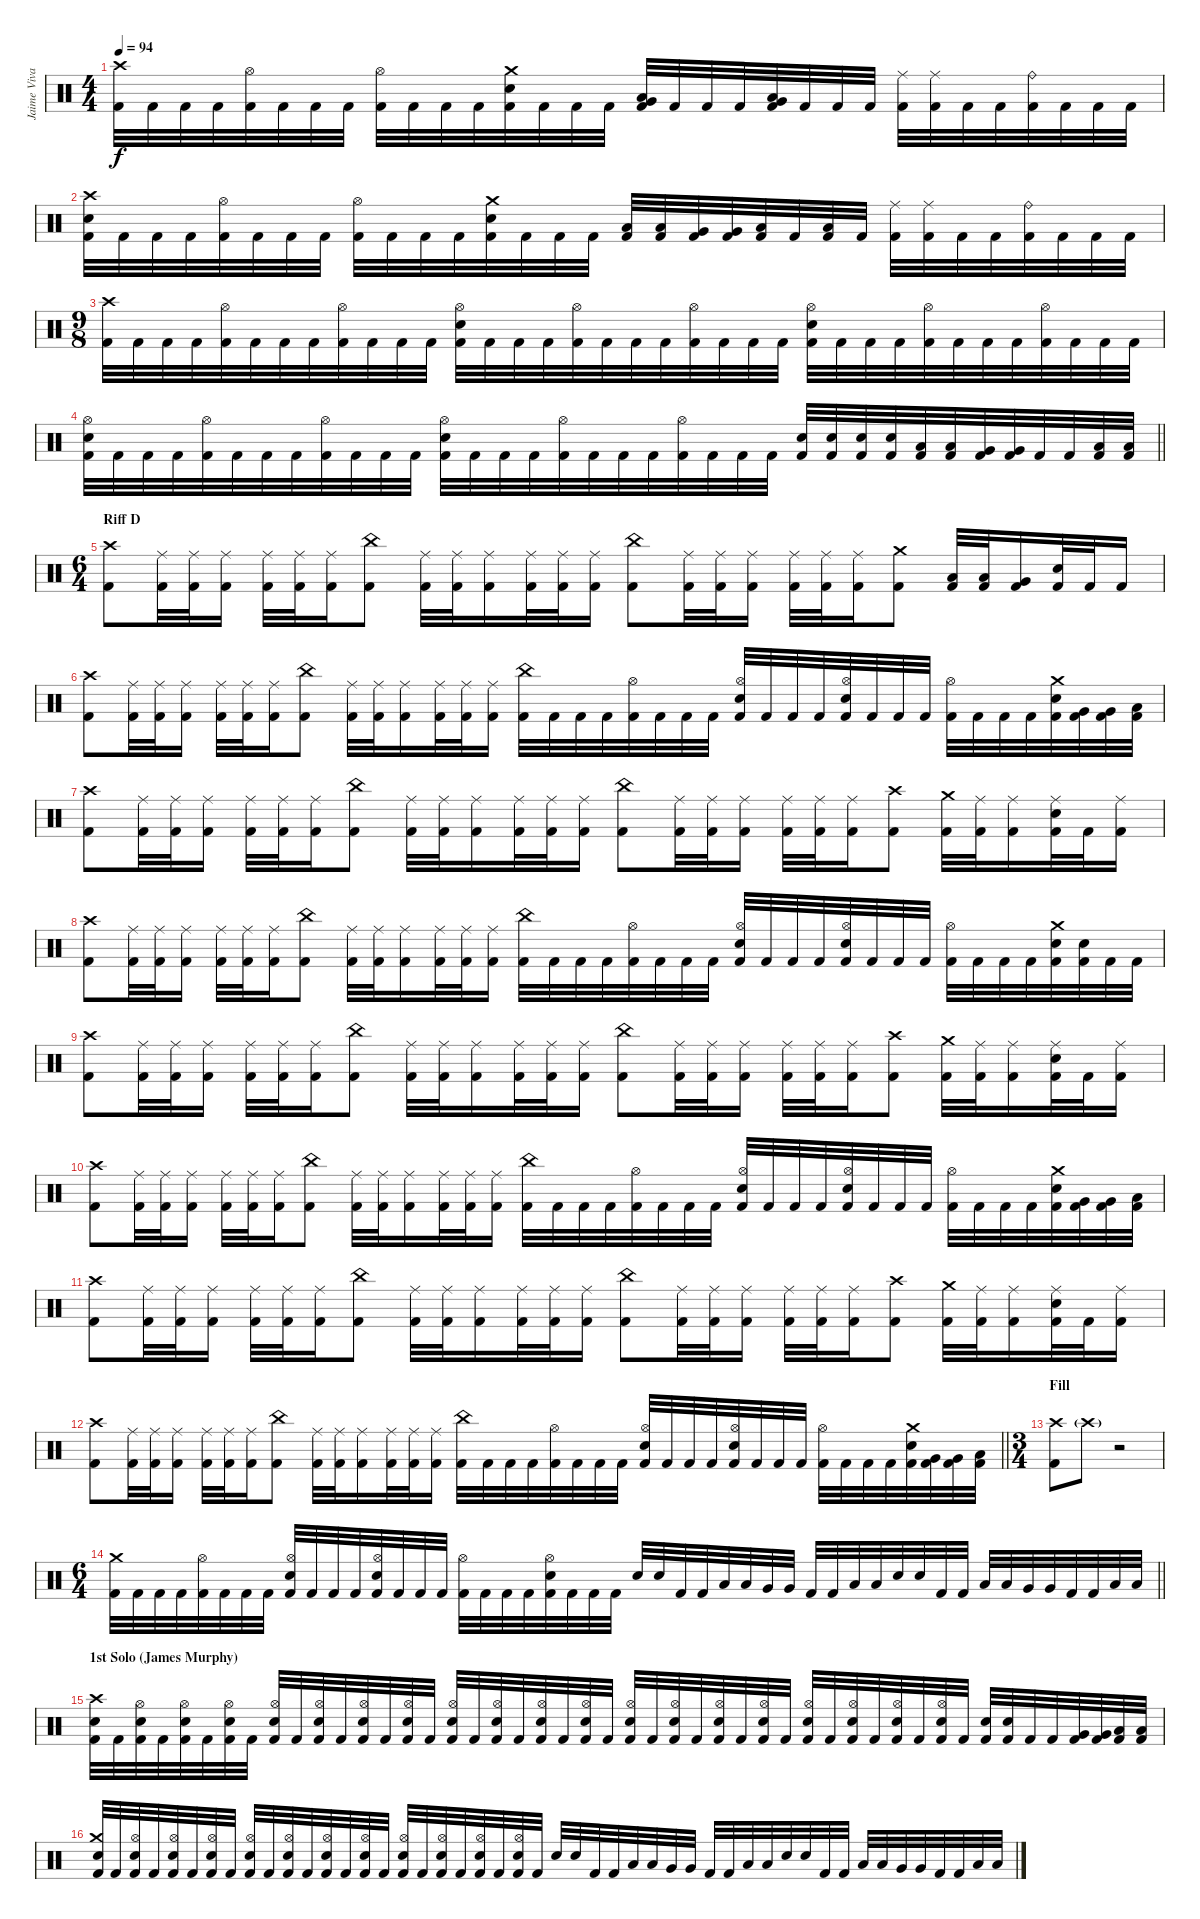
\track ("Jaime Vivar" "Jaime Viva") {instrument percussion}
\staff {score}
\articulation defaults
\ts (4 4)
\tempo 94
\clef neutral
\ks c
("Crash high (hit)" "Kick (hit) 2").32{dy f} "Kick (hit) 2".32 "Kick (hit) 2".32 "Kick (hit) 2".32 ("Hi-Hat (open)" "Kick (hit) 2").32 "Kick (hit) 2".32 "Kick (hit) 2".32 "Kick (hit) 2".32 ("Hi-Hat (open)" "Kick (hit) 2").32 "Kick (hit) 2".32 "Kick (hit) 2".32 "Kick (hit) 2".32 ("Crash medium (hit)" "Snare (hit) 2" "Kick (hit) 2").32 "Kick (hit) 2".32 "Kick (hit) 2".32 "Kick (hit) 2".32 ("Low Tom (hit)" "Very Low Tom (hit)" "Kick (hit) 2").32 "Kick (hit) 2".32 "Kick (hit) 2".32 "Kick (hit) 2".32 ("Very Low Tom (hit)" "Low Floor Tom (hit)" "Kick (hit) 2").32 "Kick (hit) 2".32 "Kick (hit) 2".32 "Kick (hit) 2".32 ("Ride (middle)" "Kick (hit) 2").32 ("Ride (middle)" "Kick (hit) 2").32 "Kick (hit) 2".32 "Kick (hit) 2".32 ("Ride (bell)" "Kick (hit) 2").32 "Kick (hit) 2".32 "Kick (hit) 2".32 "Kick (hit) 2".32 |
("Crash high (hit)" "Snare (hit) 2" "Kick (hit) 2").32 "Kick (hit) 2".32 "Kick (hit) 2".32 "Kick (hit) 2".32 ("Hi-Hat (open)" "Kick (hit) 2").32 "Kick (hit) 2".32 "Kick (hit) 2".32 "Kick (hit) 2".32 ("Hi-Hat (open)" "Kick (hit) 2").32 "Kick (hit) 2".32 "Kick (hit) 2".32 "Kick (hit) 2".32 ("Crash medium (hit)" "Snare (hit) 2" "Kick (hit) 2").32 "Kick (hit) 2".32 "Kick (hit) 2".32 "Kick (hit) 2".32 ("Low Tom (hit)" "Kick (hit) 2").32 ("Low Tom (hit)" "Kick (hit) 2").32 ("Very Low Tom (hit)" "Kick (hit) 2").32 ("Very Low Tom (hit)" "Kick (hit) 2").32 ("Low Floor Tom (hit)" "Kick (hit) 2").32 "Kick (hit) 2".32 ("Low Floor Tom (hit)" "Kick (hit) 2").32 "Kick (hit) 2".32 ("Ride (middle)" "Kick (hit) 2").32 ("Ride (middle)" "Kick (hit) 2").32 "Kick (hit) 2".32 "Kick (hit) 2".32 ("Ride (bell)" "Kick (hit) 2").32 "Kick (hit) 2".32 "Kick (hit) 2".32 "Kick (hit) 2".32 |
\ts (9 8)
("Crash high (hit)" "Kick (hit) 2").32 "Kick (hit) 2".32 "Kick (hit) 2".32 "Kick (hit) 2".32 ("Hi-Hat (open)" "Kick (hit) 2").32 "Kick (hit) 2".32 "Kick (hit) 2".32 "Kick (hit) 2".32 ("Hi-Hat (open)" "Kick (hit) 2").32 "Kick (hit) 2".32 "Kick (hit) 2".32 "Kick (hit) 2".32 ("Hi-Hat (open)" "Snare (hit) 2" "Kick (hit) 2").32 "Kick (hit) 2".32 "Kick (hit) 2".32 "Kick (hit) 2".32 ("Hi-Hat (open)" "Kick (hit) 2").32 "Kick (hit) 2".32 "Kick (hit) 2".32 "Kick (hit) 2".32 ("Hi-Hat (open)" "Kick (hit) 2").32 "Kick (hit) 2".32 "Kick (hit) 2".32 "Kick (hit) 2".32 ("Hi-Hat (open)" "Snare (hit) 2" "Kick (hit) 2").32 "Kick (hit) 2".32 "Kick (hit) 2".32 "Kick (hit) 2".32 ("Hi-Hat (open)" "Kick (hit) 2").32 "Kick (hit) 2".32 "Kick (hit) 2".32 "Kick (hit) 2".32 ("Hi-Hat (open)" "Kick (hit) 2").32 "Kick (hit) 2".32 "Kick (hit) 2".32 "Kick (hit) 2".32 |
\barLineRight lightlight
("Hi-Hat (open)" "Snare (hit) 2" "Kick (hit) 2").32 "Kick (hit) 2".32 "Kick (hit) 2".32 "Kick (hit) 2".32 ("Hi-Hat (open)" "Kick (hit) 2").32 "Kick (hit) 2".32 "Kick (hit) 2".32 "Kick (hit) 2".32 ("Hi-Hat (open)" "Kick (hit) 2").32 "Kick (hit) 2".32 "Kick (hit) 2".32 "Kick (hit) 2".32 ("Hi-Hat (open)" "Snare (hit) 2" "Kick (hit) 2").32 "Kick (hit) 2".32 "Kick (hit) 2".32 "Kick (hit) 2".32 ("Hi-Hat (open)" "Kick (hit) 2").32 "Kick (hit) 2".32 "Kick (hit) 2".32 "Kick (hit) 2".32 ("Hi-Hat (open)" "Kick (hit) 2").32 "Kick (hit) 2".32 "Kick (hit) 2".32 "Kick (hit) 2".32 ("Snare (hit) 2" "Kick (hit) 2").32 ("Snare (hit) 2" "Kick (hit) 2").32 ("Snare (hit) 2" "Kick (hit) 2").32 ("Snare (hit) 2" "Kick (hit) 2").32 ("Low Tom (hit)" "Kick (hit) 2").32 ("Low Tom (hit)" "Kick (hit) 2").32 ("Very Low Tom (hit)" "Kick (hit) 2").32 ("Very Low Tom (hit)" "Kick (hit) 2").32 "Kick (hit) 2".32 "Kick (hit) 2".32 ("Low Floor Tom (hit)" "Kick (hit) 2").32 ("Low Floor Tom (hit)" "Kick (hit) 2").32 |
\ts (6 4)
\section ("" "Riff D")
("Crash high (hit)" "Kick (hit) 2").8 ("Ride (middle)" "Kick (hit) 2").32 ("Ride (middle)" "Kick (hit) 2").32 ("Ride (middle)" "Kick (hit) 2").16 ("Ride (middle)" "Kick (hit) 2").32 ("Ride (middle)" "Kick (hit) 2").32 ("Ride (middle)" "Kick (hit) 2").16 ("China (hit)" "Kick (hit) 2").8 ("Ride (middle)" "Kick (hit) 2").32 ("Ride (middle)" "Kick (hit) 2").32 ("Ride (middle)" "Kick (hit) 2").16 ("Ride (middle)" "Kick (hit) 2").32 ("Ride (middle)" "Kick (hit) 2").32 ("Ride (middle)" "Kick (hit) 2").16 ("China (hit)" "Kick (hit) 2").8 ("Ride (middle)" "Kick (hit) 2").32 ("Ride (middle)" "Kick (hit) 2").32 ("Ride (middle)" "Kick (hit) 2").16 ("Ride (middle)" "Kick (hit) 2").32 ("Ride (middle)" "Kick (hit) 2").32 ("Ride (middle)" "Kick (hit) 2").16 ("Crash medium (hit)" "Kick (hit) 2").8 ("Low Tom (hit)" "Kick (hit) 2").32 ("Low Tom (hit)" "Kick (hit) 2").32 ("Very Low Tom (hit)" "Kick (hit) 2").16 ("Snare (hit) 2" "Kick (hit) 2").32 "Kick (hit) 2".32 "Kick (hit) 2".16 |
("Crash high (hit)" "Kick (hit) 2").8 ("Ride (middle)" "Kick (hit) 2").32 ("Ride (middle)" "Kick (hit) 2").32 ("Ride (middle)" "Kick (hit) 2").16 ("Ride (middle)" "Kick (hit) 2").32 ("Ride (middle)" "Kick (hit) 2").32 ("Ride (middle)" "Kick (hit) 2").16 ("China (hit)" "Kick (hit) 2").8 ("Ride (middle)" "Kick (hit) 2").32 ("Ride (middle)" "Kick (hit) 2").32 ("Ride (middle)" "Kick (hit) 2").16 ("Ride (middle)" "Kick (hit) 2").32 ("Ride (middle)" "Kick (hit) 2").32 ("Ride (middle)" "Kick (hit) 2").16 ("China (hit)" "Kick (hit) 2").32 "Kick (hit) 2".32 "Kick (hit) 2".32 "Kick (hit) 2".32 ("Hi-Hat (open)" "Kick (hit) 2").32 "Kick (hit) 2".32 "Kick (hit) 2".32 "Kick (hit) 2".32 ("Hi-Hat (open)" "Snare (hit) 2" "Kick (hit) 2").32 "Kick (hit) 2".32 "Kick (hit) 2".32 "Kick (hit) 2".32 ("Hi-Hat (open)" "Snare (hit) 2" "Kick (hit) 2").32 "Kick (hit) 2".32 "Kick (hit) 2".32 "Kick (hit) 2".32 ("Hi-Hat (open)" "Kick (hit) 2").32 "Kick (hit) 2".32 "Kick (hit) 2".32 "Kick (hit) 2".32 ("Crash medium (hit)" "Snare (hit) 2" "Kick (hit) 2").32 ("Very Low Tom (hit)" "Kick (hit) 2").32 ("Very Low Tom (hit)" "Kick (hit) 2").32 ("Low Floor Tom (hit)" "Kick (hit) 2").32 |
("Crash high (hit)" "Kick (hit) 2").8 ("Ride (middle)" "Kick (hit) 2").32 ("Ride (middle)" "Kick (hit) 2").32 ("Ride (middle)" "Kick (hit) 2").16 ("Ride (middle)" "Kick (hit) 2").32 ("Ride (middle)" "Kick (hit) 2").32 ("Ride (middle)" "Kick (hit) 2").16 ("China (hit)" "Kick (hit) 2").8 ("Ride (middle)" "Kick (hit) 2").32 ("Ride (middle)" "Kick (hit) 2").32 ("Ride (middle)" "Kick (hit) 2").16 ("Ride (middle)" "Kick (hit) 2").32 ("Ride (middle)" "Kick (hit) 2").32 ("Ride (middle)" "Kick (hit) 2").16 ("China (hit)" "Kick (hit) 2").8 ("Ride (middle)" "Kick (hit) 2").32 ("Ride (middle)" "Kick (hit) 2").32 ("Ride (middle)" "Kick (hit) 2").16 ("Ride (middle)" "Kick (hit) 2").32 ("Ride (middle)" "Kick (hit) 2").32 ("Ride (middle)" "Kick (hit) 2").16 ("Crash high (hit)" "Kick (hit) 2").8 ("Crash medium (hit)" "Kick (hit) 2").32 ("Ride (middle)" "Kick (hit) 2").32 ("Ride (middle)" "Kick (hit) 2").16 ("Ride (middle)" "Snare (hit) 2" "Kick (hit) 2").32 "Kick (hit) 2".32 ("Ride (middle)" "Kick (hit) 2").16 |
("Crash high (hit)" "Kick (hit) 2").8 ("Ride (middle)" "Kick (hit) 2").32 ("Ride (middle)" "Kick (hit) 2").32 ("Ride (middle)" "Kick (hit) 2").16 ("Ride (middle)" "Kick (hit) 2").32 ("Ride (middle)" "Kick (hit) 2").32 ("Ride (middle)" "Kick (hit) 2").16 ("China (hit)" "Kick (hit) 2").8 ("Ride (middle)" "Kick (hit) 2").32 ("Ride (middle)" "Kick (hit) 2").32 ("Ride (middle)" "Kick (hit) 2").16 ("Ride (middle)" "Kick (hit) 2").32 ("Ride (middle)" "Kick (hit) 2").32 ("Ride (middle)" "Kick (hit) 2").16 ("China (hit)" "Kick (hit) 2").32 "Kick (hit) 2".32 "Kick (hit) 2".32 "Kick (hit) 2".32 ("Hi-Hat (open)" "Kick (hit) 2").32 "Kick (hit) 2".32 "Kick (hit) 2".32 "Kick (hit) 2".32 ("Hi-Hat (open)" "Snare (hit) 2" "Kick (hit) 2").32 "Kick (hit) 2".32 "Kick (hit) 2".32 "Kick (hit) 2".32 ("Hi-Hat (open)" "Snare (hit) 2" "Kick (hit) 2").32 "Kick (hit) 2".32 "Kick (hit) 2".32 "Kick (hit) 2".32 ("Hi-Hat (open)" "Kick (hit) 2").32 "Kick (hit) 2".32 "Kick (hit) 2".32 "Kick (hit) 2".32 ("Crash medium (hit)" "Snare (hit) 2" "Kick (hit) 2").32 ("Snare (hit) 2" "Kick (hit) 2").32 "Kick (hit) 2".32 "Kick (hit) 2".32 |
("Crash high (hit)" "Kick (hit) 2").8 ("Ride (middle)" "Kick (hit) 2").32 ("Ride (middle)" "Kick (hit) 2").32 ("Ride (middle)" "Kick (hit) 2").16 ("Ride (middle)" "Kick (hit) 2").32 ("Ride (middle)" "Kick (hit) 2").32 ("Ride (middle)" "Kick (hit) 2").16 ("China (hit)" "Kick (hit) 2").8 ("Ride (middle)" "Kick (hit) 2").32 ("Ride (middle)" "Kick (hit) 2").32 ("Ride (middle)" "Kick (hit) 2").16 ("Ride (middle)" "Kick (hit) 2").32 ("Ride (middle)" "Kick (hit) 2").32 ("Ride (middle)" "Kick (hit) 2").16 ("China (hit)" "Kick (hit) 2").8 ("Ride (middle)" "Kick (hit) 2").32 ("Ride (middle)" "Kick (hit) 2").32 ("Ride (middle)" "Kick (hit) 2").16 ("Ride (middle)" "Kick (hit) 2").32 ("Ride (middle)" "Kick (hit) 2").32 ("Ride (middle)" "Kick (hit) 2").16 ("Crash high (hit)" "Kick (hit) 2").8 ("Crash medium (hit)" "Kick (hit) 2").32 ("Ride (middle)" "Kick (hit) 2").32 ("Ride (middle)" "Kick (hit) 2").16 ("Ride (middle)" "Snare (hit) 2" "Kick (hit) 2").32 "Kick (hit) 2".32 ("Ride (middle)" "Kick (hit) 2").16 |
("Crash high (hit)" "Kick (hit) 2").8 ("Ride (middle)" "Kick (hit) 2").32 ("Ride (middle)" "Kick (hit) 2").32 ("Ride (middle)" "Kick (hit) 2").16 ("Ride (middle)" "Kick (hit) 2").32 ("Ride (middle)" "Kick (hit) 2").32 ("Ride (middle)" "Kick (hit) 2").16 ("China (hit)" "Kick (hit) 2").8 ("Ride (middle)" "Kick (hit) 2").32 ("Ride (middle)" "Kick (hit) 2").32 ("Ride (middle)" "Kick (hit) 2").16 ("Ride (middle)" "Kick (hit) 2").32 ("Ride (middle)" "Kick (hit) 2").32 ("Ride (middle)" "Kick (hit) 2").16 ("China (hit)" "Kick (hit) 2").32 "Kick (hit) 2".32 "Kick (hit) 2".32 "Kick (hit) 2".32 ("Hi-Hat (open)" "Kick (hit) 2").32 "Kick (hit) 2".32 "Kick (hit) 2".32 "Kick (hit) 2".32 ("Hi-Hat (open)" "Snare (hit) 2" "Kick (hit) 2").32 "Kick (hit) 2".32 "Kick (hit) 2".32 "Kick (hit) 2".32 ("Hi-Hat (open)" "Snare (hit) 2" "Kick (hit) 2").32 "Kick (hit) 2".32 "Kick (hit) 2".32 "Kick (hit) 2".32 ("Hi-Hat (open)" "Kick (hit) 2").32 "Kick (hit) 2".32 "Kick (hit) 2".32 "Kick (hit) 2".32 ("Crash medium (hit)" "Snare (hit) 2" "Kick (hit) 2").32 ("Very Low Tom (hit)" "Kick (hit) 2").32 ("Very Low Tom (hit)" "Kick (hit) 2").32 ("Low Floor Tom (hit)" "Kick (hit) 2").32 |
("Crash high (hit)" "Kick (hit) 2").8 ("Ride (middle)" "Kick (hit) 2").32 ("Ride (middle)" "Kick (hit) 2").32 ("Ride (middle)" "Kick (hit) 2").16 ("Ride (middle)" "Kick (hit) 2").32 ("Ride (middle)" "Kick (hit) 2").32 ("Ride (middle)" "Kick (hit) 2").16 ("China (hit)" "Kick (hit) 2").8 ("Ride (middle)" "Kick (hit) 2").32 ("Ride (middle)" "Kick (hit) 2").32 ("Ride (middle)" "Kick (hit) 2").16 ("Ride (middle)" "Kick (hit) 2").32 ("Ride (middle)" "Kick (hit) 2").32 ("Ride (middle)" "Kick (hit) 2").16 ("China (hit)" "Kick (hit) 2").8 ("Ride (middle)" "Kick (hit) 2").32 ("Ride (middle)" "Kick (hit) 2").32 ("Ride (middle)" "Kick (hit) 2").16 ("Ride (middle)" "Kick (hit) 2").32 ("Ride (middle)" "Kick (hit) 2").32 ("Ride (middle)" "Kick (hit) 2").16 ("Crash high (hit)" "Kick (hit) 2").8 ("Crash medium (hit)" "Kick (hit) 2").32 ("Ride (middle)" "Kick (hit) 2").32 ("Ride (middle)" "Kick (hit) 2").16 ("Ride (middle)" "Snare (hit) 2" "Kick (hit) 2").32 "Kick (hit) 2".32 ("Ride (middle)" "Kick (hit) 2").16 |
\barLineRight lightlight
("Crash high (hit)" "Kick (hit) 2").8 ("Ride (middle)" "Kick (hit) 2").32 ("Ride (middle)" "Kick (hit) 2").32 ("Ride (middle)" "Kick (hit) 2").16 ("Ride (middle)" "Kick (hit) 2").32 ("Ride (middle)" "Kick (hit) 2").32 ("Ride (middle)" "Kick (hit) 2").16 ("China (hit)" "Kick (hit) 2").8 ("Ride (middle)" "Kick (hit) 2").32 ("Ride (middle)" "Kick (hit) 2").32 ("Ride (middle)" "Kick (hit) 2").16 ("Ride (middle)" "Kick (hit) 2").32 ("Ride (middle)" "Kick (hit) 2").32 ("Ride (middle)" "Kick (hit) 2").16 ("China (hit)" "Kick (hit) 2").32 "Kick (hit) 2".32 "Kick (hit) 2".32 "Kick (hit) 2".32 ("Hi-Hat (open)" "Kick (hit) 2").32 "Kick (hit) 2".32 "Kick (hit) 2".32 "Kick (hit) 2".32 ("Hi-Hat (open)" "Snare (hit) 2" "Kick (hit) 2").32 "Kick (hit) 2".32 "Kick (hit) 2".32 "Kick (hit) 2".32 ("Hi-Hat (open)" "Snare (hit) 2" "Kick (hit) 2").32 "Kick (hit) 2".32 "Kick (hit) 2".32 "Kick (hit) 2".32 ("Hi-Hat (open)" "Kick (hit) 2").32 "Kick (hit) 2".32 "Kick (hit) 2".32 "Kick (hit) 2".32 ("Crash medium (hit)" "Snare (hit) 2" "Kick (hit) 2").32 ("Very Low Tom (hit)" "Kick (hit) 2").32 ("Very Low Tom (hit)" "Kick (hit) 2").32 ("Low Floor Tom (hit)" "Kick (hit) 2").32 |
\ts (3 4)
\section ("" "Fill")
("Crash high (hit)" "Kick (hit) 2").8 "Crash high (hit)"{g}.8 r.2 |
\ts (6 4)
\barLineRight lightlight
("Crash medium (hit)" "Kick (hit) 2").32 "Kick (hit) 2".32 "Kick (hit) 2".32 "Kick (hit) 2".32 ("Hi-Hat (open)" "Kick (hit) 2").32 "Kick (hit) 2".32 "Kick (hit) 2".32 "Kick (hit) 2".32 ("Hi-Hat (open)" "Snare (hit) 2" "Kick (hit) 2").32 "Kick (hit) 2".32 "Kick (hit) 2".32 "Kick (hit) 2".32 ("Hi-Hat (open)" "Snare (hit) 2" "Kick (hit) 2").32 "Kick (hit) 2".32 "Kick (hit) 2".32 "Kick (hit) 2".32 ("Hi-Hat (open)" "Kick (hit) 2").32 "Kick (hit) 2".32 "Kick (hit) 2".32 "Kick (hit) 2".32 ("Hi-Hat (open)" "Snare (hit) 2" "Kick (hit) 2").32 "Kick (hit) 2".32 "Kick (hit) 2".32 "Kick (hit) 2".32 "Snare (hit) 2".32 "Snare (hit) 2".32 "Kick (hit) 2".32 "Kick (hit) 2".32 "Low Tom (hit)".32 "Low Tom (hit)".32 "Very Low Tom (hit)".32 "Very Low Tom (hit)".32 "Kick (hit) 2".32 "Kick (hit) 2".32 "Low Floor Tom (hit)".32 "Low Floor Tom (hit)".32 "Snare (hit) 2".32 "Snare (hit) 2".32 "Kick (hit) 2".32 "Kick (hit) 2".32 "Low Tom (hit)".32 "Low Tom (hit)".32 "Very Low Tom (hit)".32 "Very Low Tom (hit)".32 "Kick (hit) 2".32 "Kick (hit) 2".32 "Low Floor Tom (hit)".32 "Low Floor Tom (hit)".32 |
\section ("" "1st Solo (James Murphy)")
("Crash high (hit)" "Snare (hit) 2" "Kick (hit) 2").32 "Kick (hit) 2".32 ("Hi-Hat (open)" "Snare (hit) 2" "Kick (hit) 2").32 "Kick (hit) 2".32 ("Hi-Hat (open)" "Snare (hit) 2" "Kick (hit) 2").32 "Kick (hit) 2".32 ("Hi-Hat (open)" "Snare (hit) 2" "Kick (hit) 2").32 "Kick (hit) 2".32 ("Hi-Hat (open)" "Snare (hit) 2" "Kick (hit) 2").32 "Kick (hit) 2".32 ("Hi-Hat (open)" "Snare (hit) 2" "Kick (hit) 2").32 "Kick (hit) 2".32 ("Hi-Hat (open)" "Snare (hit) 2" "Kick (hit) 2").32 "Kick (hit) 2".32 ("Hi-Hat (open)" "Snare (hit) 2" "Kick (hit) 2").32 "Kick (hit) 2".32 ("Hi-Hat (open)" "Snare (hit) 2" "Kick (hit) 2").32 "Kick (hit) 2".32 ("Hi-Hat (open)" "Snare (hit) 2" "Kick (hit) 2").32 "Kick (hit) 2".32 ("Hi-Hat (open)" "Snare (hit) 2" "Kick (hit) 2").32 "Kick (hit) 2".32 ("Hi-Hat (open)" "Snare (hit) 2" "Kick (hit) 2").32 "Kick (hit) 2".32 ("Hi-Hat (open)" "Snare (hit) 2" "Kick (hit) 2").32 "Kick (hit) 2".32 ("Hi-Hat (open)" "Snare (hit) 2" "Kick (hit) 2").32 "Kick (hit) 2".32 ("Hi-Hat (open)" "Snare (hit) 2" "Kick (hit) 2").32 "Kick (hit) 2".32 ("Hi-Hat (open)" "Snare (hit) 2" "Kick (hit) 2").32 "Kick (hit) 2".32 ("Hi-Hat (open)" "Snare (hit) 2" "Kick (hit) 2").32 "Kick (hit) 2".32 ("Hi-Hat (open)" "Snare (hit) 2" "Kick (hit) 2").32 "Kick (hit) 2".32 ("Hi-Hat (open)" "Snare (hit) 2" "Kick (hit) 2").32 "Kick (hit) 2".32 ("Hi-Hat (open)" "Snare (hit) 2" "Kick (hit) 2").32 "Kick (hit) 2".32 ("Snare (hit) 2" "Kick (hit) 2").32 ("Snare (hit) 2" "Kick (hit) 2").32 "Kick (hit) 2".32 "Kick (hit) 2".32 ("Very Low Tom (hit)" "Kick (hit) 2").32 ("Very Low Tom (hit)" "Kick (hit) 2").32 ("Low Floor Tom (hit)" "Kick (hit) 2").32 ("Low Floor Tom (hit)" "Kick (hit) 2").32 |
("Crash medium (hit)" "Snare (hit) 2" "Kick (hit) 2").32 "Kick (hit) 2".32 ("Hi-Hat (open)" "Snare (hit) 2" "Kick (hit) 2").32 "Kick (hit) 2".32 ("Hi-Hat (open)" "Snare (hit) 2" "Kick (hit) 2").32 "Kick (hit) 2".32 ("Hi-Hat (open)" "Snare (hit) 2" "Kick (hit) 2").32 "Kick (hit) 2".32 ("Hi-Hat (open)" "Snare (hit) 2" "Kick (hit) 2").32 "Kick (hit) 2".32 ("Hi-Hat (open)" "Snare (hit) 2" "Kick (hit) 2").32 "Kick (hit) 2".32 ("Hi-Hat (open)" "Snare (hit) 2" "Kick (hit) 2").32 "Kick (hit) 2".32 ("Hi-Hat (open)" "Snare (hit) 2" "Kick (hit) 2").32 "Kick (hit) 2".32 ("Hi-Hat (open)" "Snare (hit) 2" "Kick (hit) 2").32 "Kick (hit) 2".32 ("Hi-Hat (open)" "Snare (hit) 2" "Kick (hit) 2").32 "Kick (hit) 2".32 ("Hi-Hat (open)" "Snare (hit) 2" "Kick (hit) 2").32 "Kick (hit) 2".32 ("Hi-Hat (open)" "Snare (hit) 2" "Kick (hit) 2").32 "Kick (hit) 2".32 "Snare (hit) 2".32 "Snare (hit) 2".32 "Kick (hit) 2".32 "Kick (hit) 2".32 "Low Tom (hit)".32 "Low Tom (hit)".32 "Very Low Tom (hit)".32 "Very Low Tom (hit)".32 "Kick (hit) 2".32 "Kick (hit) 2".32 "Low Floor Tom (hit)".32 "Low Floor Tom (hit)".32 "Snare (hit) 2".32 "Snare (hit) 2".32 "Kick (hit) 2".32 "Kick (hit) 2".32 "Low Tom (hit)".32 "Low Tom (hit)".32 "Very Low Tom (hit)".32 "Very Low Tom (hit)".32 "Kick (hit) 2".32 "Kick (hit) 2".32 "Low Floor Tom (hit)".32 "Low Floor Tom (hit)".32
